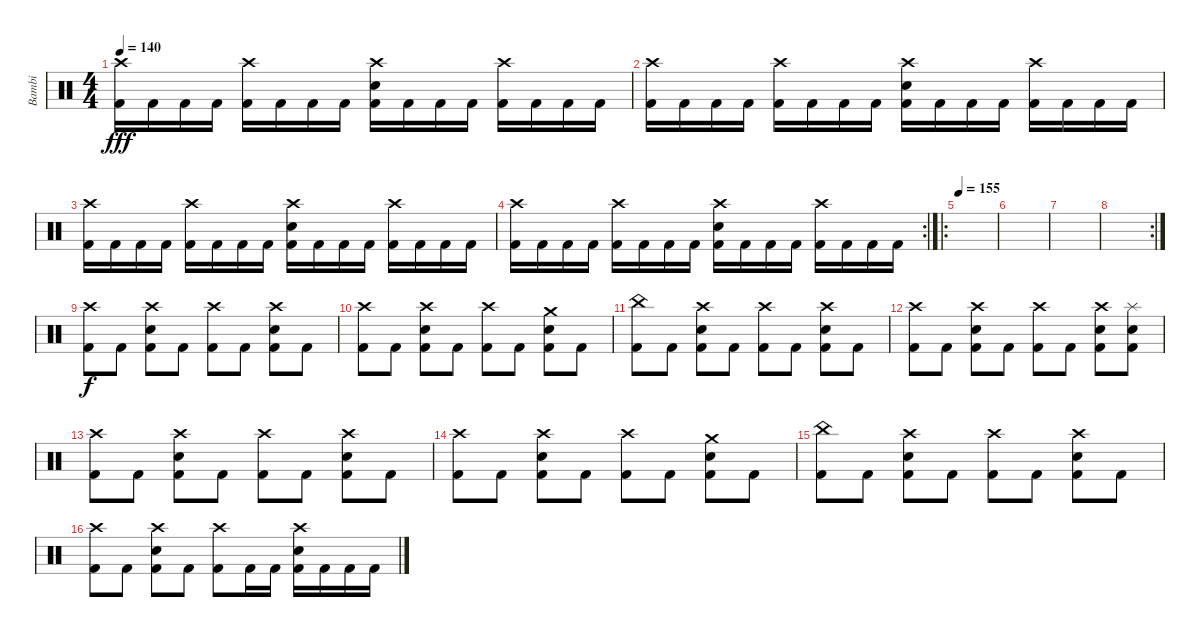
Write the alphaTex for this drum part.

\track ("Bambi" "Bambi") {instrument percussion}
\staff {score}
\articulation defaults
\ts (4 4)
\tempo 140
\clef neutral
\ks c
("Crash high (hit)" "Kick (hit) 2").16{dy fff} "Kick (hit) 2".16 "Kick (hit) 2".16 "Kick (hit) 2".16 ("Crash high (hit)" "Kick (hit) 2").16 "Kick (hit) 2".16 "Kick (hit) 2".16 "Kick (hit) 2".16 ("Electric Snare (hit)" "Crash high (hit)" "Kick (hit) 2").16 "Kick (hit) 2".16 "Kick (hit) 2".16 "Kick (hit) 2".16 ("Crash high (hit)" "Kick (hit) 2").16 "Kick (hit) 2".16 "Kick (hit) 2".16 "Kick (hit) 2".16 |
("Crash high (hit)" "Kick (hit) 2").16 "Kick (hit) 2".16 "Kick (hit) 2".16 "Kick (hit) 2".16 ("Crash high (hit)" "Kick (hit) 2").16 "Kick (hit) 2".16 "Kick (hit) 2".16 "Kick (hit) 2".16 ("Electric Snare (hit)" "Crash high (hit)" "Kick (hit) 2").16 "Kick (hit) 2".16 "Kick (hit) 2".16 "Kick (hit) 2".16 ("Crash high (hit)" "Kick (hit) 2").16 "Kick (hit) 2".16 "Kick (hit) 2".16 "Kick (hit) 2".16 |
("Crash high (hit)" "Kick (hit) 2").16 "Kick (hit) 2".16 "Kick (hit) 2".16 "Kick (hit) 2".16 ("Crash high (hit)" "Kick (hit) 2").16 "Kick (hit) 2".16 "Kick (hit) 2".16 "Kick (hit) 2".16 ("Electric Snare (hit)" "Crash high (hit)" "Kick (hit) 2").16 "Kick (hit) 2".16 "Kick (hit) 2".16 "Kick (hit) 2".16 ("Crash high (hit)" "Kick (hit) 2").16 "Kick (hit) 2".16 "Kick (hit) 2".16 "Kick (hit) 2".16 |
\rc 2
("Crash high (hit)" "Kick (hit) 2").16 "Kick (hit) 2".16 "Kick (hit) 2".16 "Kick (hit) 2".16 ("Crash high (hit)" "Kick (hit) 2").16 "Kick (hit) 2".16 "Kick (hit) 2".16 "Kick (hit) 2".16 ("Electric Snare (hit)" "Crash high (hit)" "Kick (hit) 2").16 "Kick (hit) 2".16 "Kick (hit) 2".16 "Kick (hit) 2".16 ("Crash high (hit)" "Kick (hit) 2").16 "Kick (hit) 2".16 "Kick (hit) 2".16 "Kick (hit) 2".16 |
\ro
\tempo 155
|
|
|
\rc 2
|
("Kick (hit) 2" "Crash high (hit)").8{dy f} "Kick (hit) 2".8 ("Kick (hit) 2" "Crash high (hit)" "Electric Snare (hit)").8 "Kick (hit) 2".8 ("Kick (hit) 2" "Crash high (hit)").8 "Kick (hit) 2".8 ("Kick (hit) 2" "Crash high (hit)" "Electric Snare (hit)").8 "Kick (hit) 2".8 |
("Kick (hit) 2" "Crash high (hit)").8 "Kick (hit) 2".8 ("Kick (hit) 2" "Crash high (hit)" "Electric Snare (hit)").8 "Kick (hit) 2".8 ("Kick (hit) 2" "Crash high (hit)").8 "Kick (hit) 2".8 ("Kick (hit) 2" "Crash medium (hit)" "Electric Snare (hit)").8 "Kick (hit) 2".8 |
("Kick (hit) 2" "China (hit)").8 "Kick (hit) 2".8 ("Kick (hit) 2" "Crash high (hit)" "Electric Snare (hit)").8 "Kick (hit) 2".8 ("Kick (hit) 2" "Crash high (hit)").8 "Kick (hit) 2".8 ("Kick (hit) 2" "Crash high (hit)" "Electric Snare (hit)").8 "Kick (hit) 2".8 |
("Kick (hit) 2" "Crash high (hit)").8 "Kick (hit) 2".8 ("Kick (hit) 2" "Crash high (hit)" "Electric Snare (hit)").8 "Kick (hit) 2".8 ("Kick (hit) 2" "Crash high (hit)").8 "Kick (hit) 2".8 ("Kick (hit) 2" "Crash high (hit)" "Electric Snare (hit)").8 ("Kick (hit) 2" "Electric Snare (hit)" "Splash (hit)").8 |
("Kick (hit) 2" "Crash high (hit)").8 "Kick (hit) 2".8 ("Kick (hit) 2" "Crash high (hit)" "Electric Snare (hit)").8 "Kick (hit) 2".8 ("Kick (hit) 2" "Crash high (hit)").8 "Kick (hit) 2".8 ("Kick (hit) 2" "Crash high (hit)" "Electric Snare (hit)").8 "Kick (hit) 2".8 |
("Kick (hit) 2" "Crash high (hit)").8 "Kick (hit) 2".8 ("Kick (hit) 2" "Crash high (hit)" "Electric Snare (hit)").8 "Kick (hit) 2".8 ("Kick (hit) 2" "Crash high (hit)").8 "Kick (hit) 2".8 ("Kick (hit) 2" "Crash medium (hit)" "Electric Snare (hit)").8 "Kick (hit) 2".8 |
("Kick (hit) 2" "China (hit)").8 "Kick (hit) 2".8 ("Kick (hit) 2" "Crash high (hit)" "Electric Snare (hit)").8 "Kick (hit) 2".8 ("Kick (hit) 2" "Crash high (hit)").8 "Kick (hit) 2".8 ("Kick (hit) 2" "Crash high (hit)" "Electric Snare (hit)").8 "Kick (hit) 2".8 |
("Kick (hit) 2" "Crash high (hit)").8 "Kick (hit) 2".8 ("Kick (hit) 2" "Crash high (hit)" "Electric Snare (hit)").8 "Kick (hit) 2".8 ("Kick (hit) 2" "Crash high (hit)").8 "Kick (hit) 2".16 "Kick (hit) 2".16 ("Kick (hit) 2" "Crash high (hit)" "Electric Snare (hit)").16 "Kick (hit) 2".16 "Kick (hit) 2".16 "Kick (hit) 2".16
